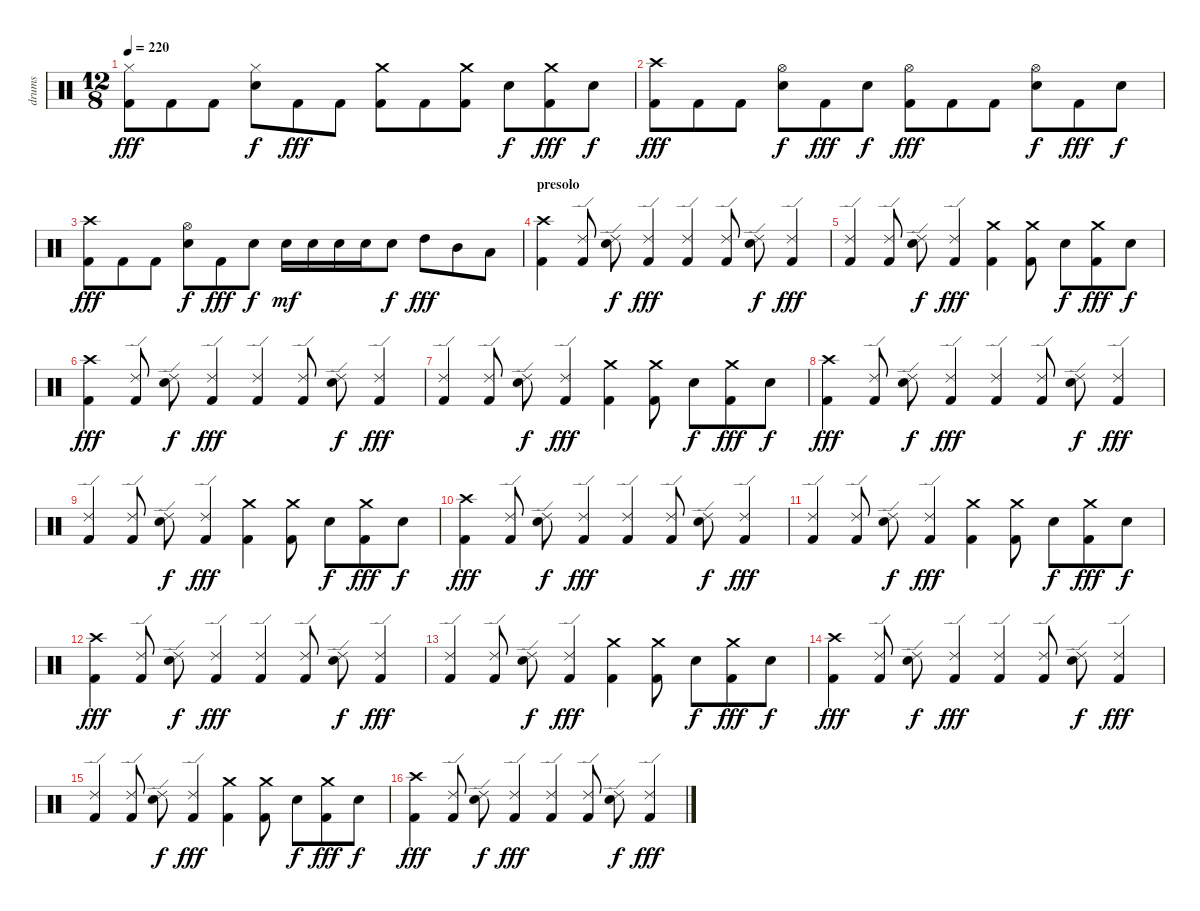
\track ("drums" "drums") {instrument percussion}
\staff {score}
\articulation defaults
\ts (12 8)
\tempo 220
\clef neutral
\ks c
("Hi-Hat (closed)" "Kick (hit) 2").8{dy fff} "Kick (hit) 2".8 "Kick (hit) 2".8 ("Hi-Hat (closed)" "Snare (hit) 2").8{dy f} "Kick (hit) 2".8{dy fff} "Kick (hit) 2".8 ("Crash medium (hit)" "Kick (hit) 2").8 "Kick (hit) 2".8 ("Crash medium (hit)" "Kick (hit) 2").8 "Snare (hit) 2".8{dy f} ("Crash medium (hit)" "Kick (hit) 2").8{dy fff} "Snare (hit) 2".8{dy f} |
("Crash high (hit)" "Kick (hit) 2").8{dy fff} "Kick (hit) 2".8 "Kick (hit) 2".8 ("Hi-Hat (open)" "Snare (hit) 2").8{dy f} "Kick (hit) 2".8{dy fff} "Snare (hit) 2".8{dy f} ("Hi-Hat (open)" "Kick (hit) 2").8{dy fff} "Kick (hit) 2".8 "Kick (hit) 2".8 ("Hi-Hat (open)" "Snare (hit) 2").8{dy f} "Kick (hit) 2".8{dy fff} "Snare (hit) 2".8{dy f} |
("Crash high (hit)" "Kick (hit) 2").8{dy fff} "Kick (hit) 2".8 "Kick (hit) 2".8 ("Hi-Hat (open)" "Snare (hit) 2").8{dy f} "Kick (hit) 2".8{dy fff} "Snare (hit) 2".8{dy f} "Snare (hit) 2".16{dy mf} "Snare (hit) 2".16 "Snare (hit) 2".16 "Snare (hit) 2".16 "Snare (hit) 2".8{dy f} "High Tom (hit)".8{dy fff} "Mid Tom (hit)".8 "Low Tom (hit)".8 |
\section ("" "presolo")
("Crash high (hit)" "Kick (hit) 2").4 ("Ride (edge) 2" "Kick (hit) 2").8 ("Ride (edge) 2" "Snare (hit) 2").8{dy f} ("Ride (edge) 2" "Kick (hit) 2").4{dy fff} ("Ride (edge) 2" "Kick (hit) 2").4 ("Ride (edge) 2" "Kick (hit) 2").8 ("Ride (edge) 2" "Snare (hit) 2").8{dy f} ("Ride (edge) 2" "Kick (hit) 2").4{dy fff} |
("Ride (edge) 2" "Kick (hit) 2").4 ("Ride (edge) 2" "Kick (hit) 2").8 ("Ride (edge) 2" "Snare (hit) 2").8{dy f} ("Ride (edge) 2" "Kick (hit) 2").4{dy fff} ("Crash medium (hit)" "Kick (hit) 2").4 ("Crash medium (hit)" "Kick (hit) 2").8 "Snare (hit) 2".8{dy f} ("Crash medium (hit)" "Kick (hit) 2").8{dy fff} "Snare (hit) 2".8{dy f} |
("Crash high (hit)" "Kick (hit) 2").4{dy fff} ("Ride (edge) 2" "Kick (hit) 2").8 ("Ride (edge) 2" "Snare (hit) 2").8{dy f} ("Ride (edge) 2" "Kick (hit) 2").4{dy fff} ("Ride (edge) 2" "Kick (hit) 2").4 ("Ride (edge) 2" "Kick (hit) 2").8 ("Ride (edge) 2" "Snare (hit) 2").8{dy f} ("Ride (edge) 2" "Kick (hit) 2").4{dy fff} |
("Ride (edge) 2" "Kick (hit) 2").4 ("Ride (edge) 2" "Kick (hit) 2").8 ("Ride (edge) 2" "Snare (hit) 2").8{dy f} ("Ride (edge) 2" "Kick (hit) 2").4{dy fff} ("Crash medium (hit)" "Kick (hit) 2").4 ("Crash medium (hit)" "Kick (hit) 2").8 "Snare (hit) 2".8{dy f} ("Crash medium (hit)" "Kick (hit) 2").8{dy fff} "Snare (hit) 2".8{dy f} |
("Crash high (hit)" "Kick (hit) 2").4{dy fff} ("Ride (edge) 2" "Kick (hit) 2").8 ("Ride (edge) 2" "Snare (hit) 2").8{dy f} ("Ride (edge) 2" "Kick (hit) 2").4{dy fff} ("Ride (edge) 2" "Kick (hit) 2").4 ("Ride (edge) 2" "Kick (hit) 2").8 ("Ride (edge) 2" "Snare (hit) 2").8{dy f} ("Ride (edge) 2" "Kick (hit) 2").4{dy fff} |
("Ride (edge) 2" "Kick (hit) 2").4 ("Ride (edge) 2" "Kick (hit) 2").8 ("Ride (edge) 2" "Snare (hit) 2").8{dy f} ("Ride (edge) 2" "Kick (hit) 2").4{dy fff} ("Crash medium (hit)" "Kick (hit) 2").4 ("Crash medium (hit)" "Kick (hit) 2").8 "Snare (hit) 2".8{dy f} ("Crash medium (hit)" "Kick (hit) 2").8{dy fff} "Snare (hit) 2".8{dy f} |
("Crash high (hit)" "Kick (hit) 2").4{dy fff} ("Ride (edge) 2" "Kick (hit) 2").8 ("Ride (edge) 2" "Snare (hit) 2").8{dy f} ("Ride (edge) 2" "Kick (hit) 2").4{dy fff} ("Ride (edge) 2" "Kick (hit) 2").4 ("Ride (edge) 2" "Kick (hit) 2").8 ("Ride (edge) 2" "Snare (hit) 2").8{dy f} ("Ride (edge) 2" "Kick (hit) 2").4{dy fff} |
("Ride (edge) 2" "Kick (hit) 2").4 ("Ride (edge) 2" "Kick (hit) 2").8 ("Ride (edge) 2" "Snare (hit) 2").8{dy f} ("Ride (edge) 2" "Kick (hit) 2").4{dy fff} ("Crash medium (hit)" "Kick (hit) 2").4 ("Crash medium (hit)" "Kick (hit) 2").8 "Snare (hit) 2".8{dy f} ("Crash medium (hit)" "Kick (hit) 2").8{dy fff} "Snare (hit) 2".8{dy f} |
("Crash high (hit)" "Kick (hit) 2").4{dy fff} ("Ride (edge) 2" "Kick (hit) 2").8 ("Ride (edge) 2" "Snare (hit) 2").8{dy f} ("Ride (edge) 2" "Kick (hit) 2").4{dy fff} ("Ride (edge) 2" "Kick (hit) 2").4 ("Ride (edge) 2" "Kick (hit) 2").8 ("Ride (edge) 2" "Snare (hit) 2").8{dy f} ("Ride (edge) 2" "Kick (hit) 2").4{dy fff} |
("Ride (edge) 2" "Kick (hit) 2").4 ("Ride (edge) 2" "Kick (hit) 2").8 ("Ride (edge) 2" "Snare (hit) 2").8{dy f} ("Ride (edge) 2" "Kick (hit) 2").4{dy fff} ("Crash medium (hit)" "Kick (hit) 2").4 ("Crash medium (hit)" "Kick (hit) 2").8 "Snare (hit) 2".8{dy f} ("Crash medium (hit)" "Kick (hit) 2").8{dy fff} "Snare (hit) 2".8{dy f} |
("Crash high (hit)" "Kick (hit) 2").4{dy fff} ("Ride (edge) 2" "Kick (hit) 2").8 ("Ride (edge) 2" "Snare (hit) 2").8{dy f} ("Ride (edge) 2" "Kick (hit) 2").4{dy fff} ("Ride (edge) 2" "Kick (hit) 2").4 ("Ride (edge) 2" "Kick (hit) 2").8 ("Ride (edge) 2" "Snare (hit) 2").8{dy f} ("Ride (edge) 2" "Kick (hit) 2").4{dy fff} |
("Ride (edge) 2" "Kick (hit) 2").4 ("Ride (edge) 2" "Kick (hit) 2").8 ("Ride (edge) 2" "Snare (hit) 2").8{dy f} ("Ride (edge) 2" "Kick (hit) 2").4{dy fff} ("Crash medium (hit)" "Kick (hit) 2").4 ("Crash medium (hit)" "Kick (hit) 2").8 "Snare (hit) 2".8{dy f} ("Crash medium (hit)" "Kick (hit) 2").8{dy fff} "Snare (hit) 2".8{dy f} |
("Crash high (hit)" "Kick (hit) 2").4{dy fff} ("Ride (edge) 2" "Kick (hit) 2").8 ("Ride (edge) 2" "Snare (hit) 2").8{dy f} ("Ride (edge) 2" "Kick (hit) 2").4{dy fff} ("Ride (edge) 2" "Kick (hit) 2").4 ("Ride (edge) 2" "Kick (hit) 2").8 ("Ride (edge) 2" "Snare (hit) 2").8{dy f} ("Ride (edge) 2" "Kick (hit) 2").4{dy fff}
